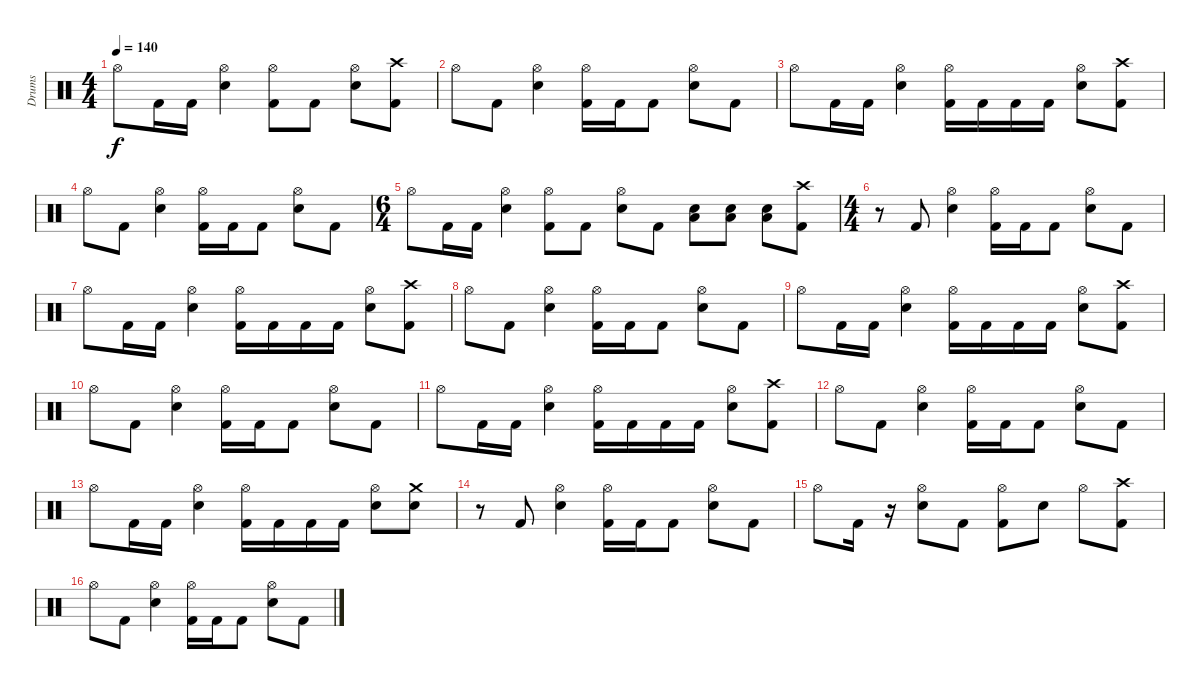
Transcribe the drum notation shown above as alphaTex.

\track ("Drums" "Drums") {instrument percussion}
\staff {score}
\articulation defaults
\ts (4 4)
\tempo 140
\clef neutral
\ks c "Hi-Hat (open)".8{dy f} "Kick (hit) 2".16 "Kick (hit) 2".16
("Electric Snare (hit)" "Hi-Hat (open)").4 ("Hi-Hat (open)" "Kick (hit) 2").8 "Kick (hit) 2".8 ("Hi-Hat (open)" "Electric Snare (hit)").8 ("Crash high (hit)" "Kick (hit) 2").8 |
"Hi-Hat (open)".8 "Kick (hit) 2".8 ("Electric Snare (hit)" "Hi-Hat (open)").4 ("Kick (hit) 2" "Hi-Hat (open)").16 "Kick (hit) 2".16 "Kick (hit) 2".8 ("Hi-Hat (open)" "Electric Snare (hit)").8 "Kick (hit) 2".8 |
"Hi-Hat (open)".8 "Kick (hit) 2".16 "Kick (hit) 2".16 ("Electric Snare (hit)" "Hi-Hat (open)").4 ("Hi-Hat (open)" "Kick (hit) 2").16 "Kick (hit) 2".16 "Kick (hit) 2".16 "Kick (hit) 2".16 ("Hi-Hat (open)" "Electric Snare (hit)").8 ("Kick (hit) 2" "Crash high (hit)").8 |
"Hi-Hat (open)".8 "Kick (hit) 2".8 ("Electric Snare (hit)" "Hi-Hat (open)").4 ("Kick (hit) 2" "Hi-Hat (open)").16 "Kick (hit) 2".16 "Kick (hit) 2".8 ("Hi-Hat (open)" "Electric Snare (hit)").8 "Kick (hit) 2".8 |
\ts (6 4)
"Hi-Hat (open)".8 "Kick (hit) 2".16 "Kick (hit) 2".16 ("Electric Snare (hit)" "Hi-Hat (open)").4 ("Hi-Hat (open)" "Kick (hit) 2").8 "Kick (hit) 2".8 ("Hi-Hat (open)" "Electric Snare (hit)").8 "Kick (hit) 2".8 ("Electric Snare (hit)" "Low Tom (hit)").8 ("Low Tom (hit)" "Electric Snare (hit)").8 ("Low Tom (hit)" "Electric Snare (hit)").8 ("Kick (hit) 2" "Crash high (hit)").8 |
\ts (4 4)
r.8 "Kick (hit) 2".8 ("Electric Snare (hit)" "Hi-Hat (open)").4 ("Kick (hit) 2" "Hi-Hat (open)").16 "Kick (hit) 2".16 "Kick (hit) 2".8 ("Hi-Hat (open)" "Electric Snare (hit)").8 "Kick (hit) 2".8 |
"Hi-Hat (open)".8 "Kick (hit) 2".16 "Kick (hit) 2".16 ("Electric Snare (hit)" "Hi-Hat (open)").4 ("Hi-Hat (open)" "Kick (hit) 2").16 "Kick (hit) 2".16 "Kick (hit) 2".16 "Kick (hit) 2".16 ("Hi-Hat (open)" "Electric Snare (hit)").8 ("Kick (hit) 2" "Crash high (hit)").8 |
"Hi-Hat (open)".8 "Kick (hit) 2".8 ("Electric Snare (hit)" "Hi-Hat (open)").4 ("Kick (hit) 2" "Hi-Hat (open)").16 "Kick (hit) 2".16 "Kick (hit) 2".8 ("Hi-Hat (open)" "Electric Snare (hit)").8 "Kick (hit) 2".8 |
"Hi-Hat (open)".8 "Kick (hit) 2".16 "Kick (hit) 2".16 ("Electric Snare (hit)" "Hi-Hat (open)").4 ("Hi-Hat (open)" "Kick (hit) 2").16 "Kick (hit) 2".16 "Kick (hit) 2".16 "Kick (hit) 2".16 ("Hi-Hat (open)" "Electric Snare (hit)").8 ("Kick (hit) 2" "Crash high (hit)").8 |
"Hi-Hat (open)".8 "Kick (hit) 2".8 ("Electric Snare (hit)" "Hi-Hat (open)").4 ("Kick (hit) 2" "Hi-Hat (open)").16 "Kick (hit) 2".16 "Kick (hit) 2".8 ("Hi-Hat (open)" "Electric Snare (hit)").8 "Kick (hit) 2".8 |
"Hi-Hat (open)".8 "Kick (hit) 2".16 "Kick (hit) 2".16 ("Electric Snare (hit)" "Hi-Hat (open)").4 ("Hi-Hat (open)" "Kick (hit) 2").16 "Kick (hit) 2".16 "Kick (hit) 2".16 "Kick (hit) 2".16 ("Hi-Hat (open)" "Electric Snare (hit)").8 ("Crash high (hit)" "Kick (hit) 2").8 |
"Hi-Hat (open)".8 "Kick (hit) 2".8 ("Electric Snare (hit)" "Hi-Hat (open)").4 ("Kick (hit) 2" "Hi-Hat (open)").16 "Kick (hit) 2".16 "Kick (hit) 2".8 ("Hi-Hat (open)" "Electric Snare (hit)").8 "Kick (hit) 2".8 |
"Hi-Hat (open)".8 "Kick (hit) 2".16 "Kick (hit) 2".16 ("Electric Snare (hit)" "Hi-Hat (open)").4 ("Hi-Hat (open)" "Kick (hit) 2").16 "Kick (hit) 2".16 "Kick (hit) 2".16 "Kick (hit) 2".16 ("Hi-Hat (open)" "Electric Snare (hit)").8 ("Electric Snare (hit)" "Crash medium (hit)").8 |
r.8 "Kick (hit) 2".8 ("Electric Snare (hit)" "Hi-Hat (open)").4 ("Kick (hit) 2" "Hi-Hat (open)").16 "Kick (hit) 2".16 "Kick (hit) 2".8 ("Hi-Hat (open)" "Electric Snare (hit)").8 "Kick (hit) 2".8 |
"Hi-Hat (open)".8 "Kick (hit) 2".16 r.16 ("Electric Snare (hit)" "Hi-Hat (open)").8 "Kick (hit) 2".8 ("Hi-Hat (open)" "Kick (hit) 2").8 "Electric Snare (hit)".8 "Hi-Hat (open)".8 ("Kick (hit) 2" "Crash high (hit)").8 |
"Hi-Hat (open)".8 "Kick (hit) 2".8 ("Electric Snare (hit)" "Hi-Hat (open)").4 ("Kick (hit) 2" "Hi-Hat (open)").16 "Kick (hit) 2".16 "Kick (hit) 2".8 ("Hi-Hat (open)" "Electric Snare (hit)").8 "Kick (hit) 2".8
